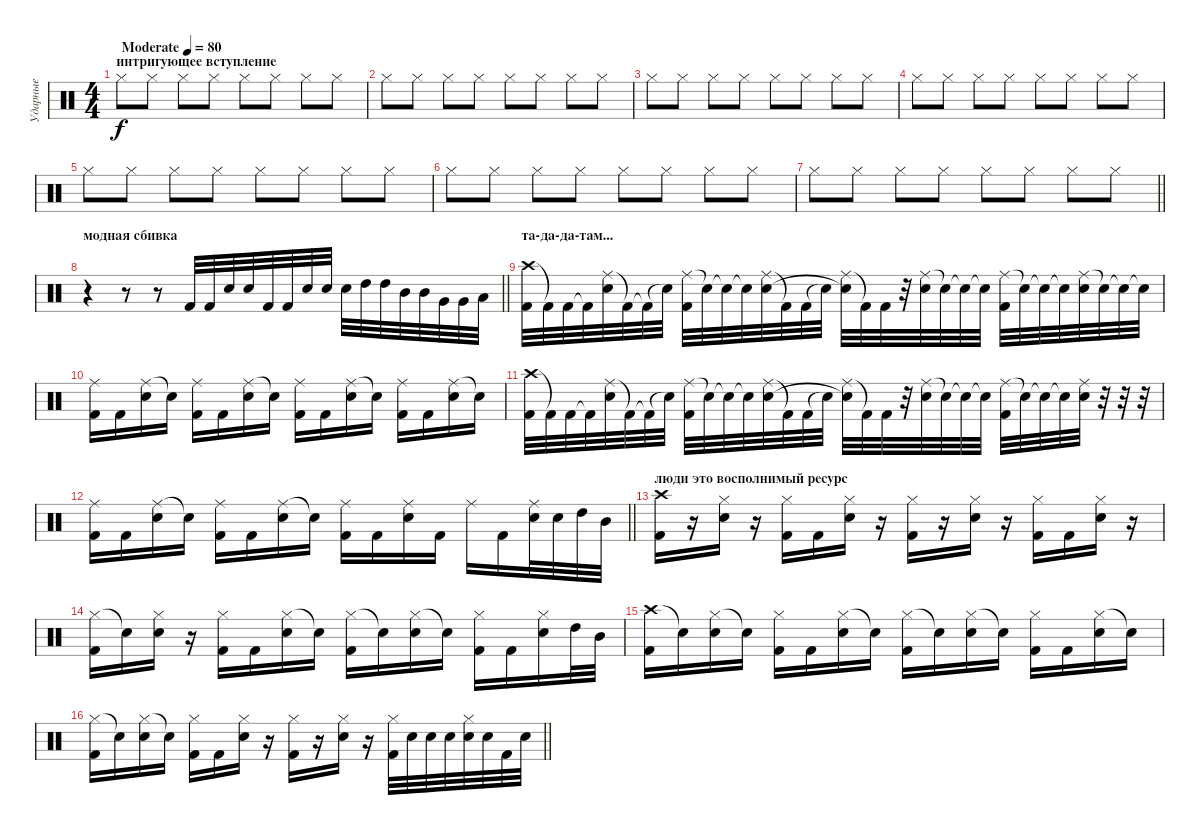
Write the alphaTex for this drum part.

\track ("Ударные" "Ударные") {instrument percussion}
\staff {score}
\articulation defaults
\ts (4 4)
\section ("" "интригующее вступление")
\tempo (80 "Moderate")
\clef neutral
\ks c "Hi-Hat (closed)".8{dy f} "Hi-Hat (closed)".8 "Hi-Hat (closed)".8 "Hi-Hat (closed)".8 "Hi-Hat (closed)".8 "Hi-Hat (closed)".8 "Hi-Hat (closed)".8 "Hi-Hat (closed)".8
|
"Hi-Hat (closed)".8 "Hi-Hat (closed)".8 "Hi-Hat (closed)".8 "Hi-Hat (closed)".8 "Hi-Hat (closed)".8 "Hi-Hat (closed)".8 "Hi-Hat (closed)".8 "Hi-Hat (closed)".8 |
"Hi-Hat (closed)".8 "Hi-Hat (closed)".8 "Hi-Hat (closed)".8 "Hi-Hat (closed)".8 "Hi-Hat (closed)".8 "Hi-Hat (closed)".8 "Hi-Hat (closed)".8 "Hi-Hat (closed)".8 |
"Hi-Hat (closed)".8 "Hi-Hat (closed)".8 "Hi-Hat (closed)".8 "Hi-Hat (closed)".8 "Hi-Hat (closed)".8 "Hi-Hat (closed)".8 "Hi-Hat (closed)".8 "Hi-Hat (closed)".8 |
"Hi-Hat (closed)".8 "Hi-Hat (closed)".8 "Hi-Hat (closed)".8 "Hi-Hat (closed)".8 "Hi-Hat (closed)".8 "Hi-Hat (closed)".8 "Hi-Hat (closed)".8 "Hi-Hat (closed)".8 |
"Hi-Hat (closed)".8 "Hi-Hat (closed)".8 "Hi-Hat (closed)".8 "Hi-Hat (closed)".8 "Hi-Hat (closed)".8 "Hi-Hat (closed)".8 "Hi-Hat (closed)".8 "Hi-Hat (closed)".8 |
\barLineRight lightlight "Hi-Hat (closed)".8 "Hi-Hat (closed)".8 "Hi-Hat (closed)".8 "Hi-Hat (closed)".8 "Hi-Hat (closed)".8 "Hi-Hat (closed)".8 "Hi-Hat (closed)".8 "Hi-Hat (closed)".8
|
\section ("" "модная сбивка")
\barLineRight lightlight
r.4 r.8 r.8 "Kick (hit) 2".32 "Kick (hit) 2".32 "Snare (hit) 2".32 "Snare (hit) 2".32 "Kick (hit) 2".32 "Kick (hit) 2".32 "Snare (hit) 2".32 "Snare (hit) 2".32 "Snare (hit) 2".32 "High Tom (hit)".32 "High Tom (hit)".32 "Mid Tom (hit)".32 "Mid Tom (hit)".32 "Very Low Tom (hit)".32 "Very Low Tom (hit)".32 "Low Floor Tom (hit)".32 |
\section ("" "та-да-да-там...")
("Crash high (hit)" "Kick (hit) 2").32 "Kick (hit) 2"{t}.32 "Kick (hit) 2".32 "Kick (hit) 2"{t}.32 ("Ride (middle)" "Snare (hit) 2").32 "Kick (hit) 2"{t}.32 "Kick (hit) 2"{t}.32 "Snare (hit) 2"{t}.32 ("Ride (middle)" "Kick (hit) 2").32 "Snare (hit) 2"{t}.32 "Snare (hit) 2"{t}.32 "Snare (hit) 2"{t}.32 ("Ride (middle)" "Snare (hit) 2").32 "Kick (hit) 2"{t}.32 "Kick (hit) 2".32 "Snare (hit) 2"{t}.32 ("Ride (middle)" "Snare (hit)"{t}).32 "Kick (hit) 2"{t}.32 "Kick (hit) 2".32 r.32 ("Ride (middle)" "Snare (hit) 2").32 "Snare (hit)"{t}.32 "Snare (hit)"{t}.32 "Snare (hit)"{t}.32 ("Ride (middle)" "Kick (hit) 2").32 "Snare (hit)"{t}.32 "Snare (hit)"{t}.32 "Snare (hit)"{t}.32 ("Ride (middle)" "Snare (hit) 2").32 "Snare (hit)"{t}.32 "Snare (hit)"{t}.32 "Snare (hit)"{t}.32 |
("Ride (middle)" "Kick (hit) 2").16 "Kick (hit) 2".16 ("Ride (middle)" "Snare (hit) 2").16 "Snare (hit)"{t}.16 ("Ride (middle)" "Kick (hit) 2").16 "Kick (hit) 2".16 ("Ride (middle)" "Snare (hit) 2").16 "Snare (hit)"{t}.16 ("Ride (middle)" "Kick (hit) 2").16 "Kick (hit) 2".16 ("Ride (middle)" "Snare (hit) 2").16 "Snare (hit)"{t}.16 ("Ride (middle)" "Kick (hit) 2").16 "Kick (hit) 2".16 ("Ride (middle)" "Snare (hit) 2").16 "Snare (hit)"{t}.16 |
("Crash high (hit)" "Kick (hit) 2").32 "Kick (hit) 2"{t}.32 "Kick (hit) 2".32 "Kick (hit) 2"{t}.32 ("Ride (middle)" "Snare (hit) 2").32 "Kick (hit) 2"{t}.32 "Kick (hit) 2"{t}.32 "Snare (hit) 2"{t}.32 ("Ride (middle)" "Kick (hit) 2").32 "Snare (hit) 2"{t}.32 "Snare (hit) 2"{t}.32 "Snare (hit) 2"{t}.32 ("Ride (middle)" "Snare (hit) 2").32 "Kick (hit) 2"{t}.32 "Kick (hit) 2".32 "Snare (hit) 2"{t}.32 ("Ride (middle)" "Snare (hit)"{t}).32 "Kick (hit) 2"{t}.32 "Kick (hit) 2".32 r.32 ("Ride (middle)" "Snare (hit) 2").32 "Snare (hit)"{t}.32 "Snare (hit)"{t}.32 "Snare (hit)"{t}.32 ("Ride (middle)" "Kick (hit) 2").32 "Snare (hit)"{t}.32 "Snare (hit)"{t}.32 "Snare (hit)"{t}.32 ("Ride (middle)" "Snare (hit) 2").32 r.32 r.32 r.32 |
\barLineRight lightlight
("Ride (middle)" "Kick (hit) 2").16 "Kick (hit) 2".16 ("Ride (middle)" "Snare (hit) 2").16 "Snare (hit)"{t}.16 ("Ride (middle)" "Kick (hit) 2").16 "Kick (hit) 2".16 ("Ride (middle)" "Snare (hit) 2").16 "Snare (hit)"{t}.16 ("Ride (middle)" "Kick (hit) 2").16 "Kick (hit) 2".16 ("Ride (middle)" "Snare (hit) 2").16 "Kick (hit) 2".16 "Ride (middle)".16 "Kick (hit) 2".16 ("Ride (middle)" "Snare (hit) 2").32 "Snare (hit) 2".32 "High Tom (hit)".32 "Mid Tom (hit)".32 |
\section ("" "люди это восполнимый ресурс")
("Crash high (hit)" "Kick (hit) 2").16 r.16 ("Hi-Hat (closed)" "Snare (hit) 2").16 r.16 ("Hi-Hat (closed)" "Kick (hit) 2").16 "Kick (hit) 2".16 ("Hi-Hat (closed)" "Snare (hit) 2").16 r.16 ("Hi-Hat (closed)" "Kick (hit) 2").16 r.16 ("Hi-Hat (closed)" "Snare (hit) 2").16 r.16 ("Hi-Hat (closed)" "Kick (hit) 2").16 "Kick (hit) 2".16 ("Hi-Hat (closed)" "Snare (hit) 2").16 r.16 |
("Hi-Hat (closed)" "Kick (hit) 2").16 "Snare (hit)"{t}.16 ("Hi-Hat (closed)" "Snare (hit) 2").16 r.16 ("Hi-Hat (closed)" "Kick (hit) 2").16 "Kick (hit) 2".16 ("Hi-Hat (closed)" "Snare (hit) 2").16 "Snare (hit)"{t}.16 ("Hi-Hat (closed)" "Kick (hit) 2").16 "Snare (hit) 2"{t}.16 ("Hi-Hat (closed)" "Snare (hit) 2").16 "Snare (hit)"{t}.16 ("Hi-Hat (closed)" "Kick (hit) 2").16 "Kick (hit) 2".16 ("Hi-Hat (closed)" "Snare (hit) 2").16 "High Tom (hit)".32 "Mid Tom (hit)".32 |
("Crash high (hit)" "Kick (hit) 2").16 "Snare (hit)"{t}.16 ("Hi-Hat (closed)" "Snare (hit) 2").16 "Snare (hit)"{t}.16 ("Hi-Hat (closed)" "Kick (hit) 2").16 "Kick (hit) 2".16 ("Hi-Hat (closed)" "Snare (hit) 2").16 "Snare (hit)"{t}.16 ("Hi-Hat (closed)" "Kick (hit) 2").16 "Snare (hit) 2"{t}.16 ("Hi-Hat (closed)" "Snare (hit) 2").16 "Snare (hit)"{t}.16 ("Hi-Hat (closed)" "Kick (hit) 2").16 "Kick (hit) 2".16 ("Hi-Hat (closed)" "Snare (hit) 2").16 "Snare (hit)"{t}.16 |
\barLineRight lightlight
("Hi-Hat (closed)" "Kick (hit) 2").16 "Snare (hit)"{t}.16 ("Hi-Hat (closed)" "Snare (hit) 2").16 "Snare (hit)"{t}.16 ("Hi-Hat (closed)" "Kick (hit) 2").16 "Kick (hit) 2".16 ("Hi-Hat (closed)" "Snare (hit) 2").16 r.16 ("Hi-Hat (closed)" "Kick (hit) 2").16 r.16 ("Hi-Hat (closed)" "Snare (hit) 2").16 r.16 ("Hi-Hat (closed)" "Kick (hit) 2").32 "Snare (hit) 2".32 "Snare (hit) 2".32 "Snare (hit) 2".32 ("Hi-Hat (closed)" "Snare (hit) 2").32 "Snare (hit) 2".32 "Kick (hit) 2".32 "Snare (hit) 2".32
